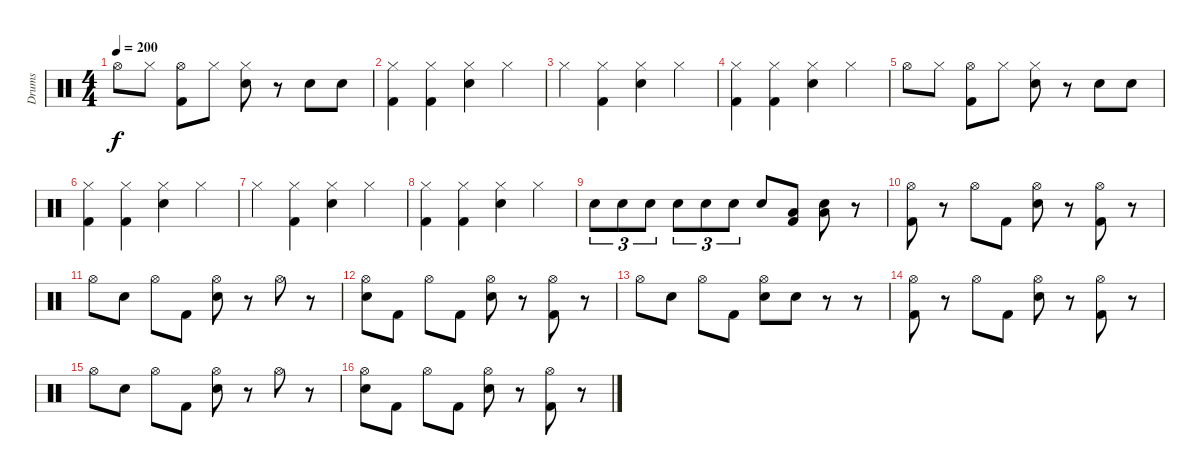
\track ("Drums" "Drums") {instrument percussion}
\staff {score}
\articulation defaults
\ts (4 4)
\tempo 200
\clef neutral
\ks c "Hi-Hat (open)".8{dy f} "Hi-Hat (closed)".8
("Hi-Hat (open)" "Kick (hit) 2").8 "Hi-Hat (closed)".8 ("Hi-Hat (closed)" "Electric Snare (hit)").8 r.8 "Electric Snare (hit)".8 "Electric Snare (hit)".8 |
("Hi-Hat (closed)" "Kick (hit) 2").4 ("Hi-Hat (closed)" "Kick (hit) 2").4 ("Hi-Hat (closed)" "Electric Snare (hit)").4 "Hi-Hat (closed)".4 |
"Hi-Hat (closed)".4 ("Hi-Hat (closed)" "Kick (hit) 2").4 ("Hi-Hat (closed)" "Electric Snare (hit)").4 "Hi-Hat (closed)".4 |
("Hi-Hat (closed)" "Kick (hit) 2").4 ("Hi-Hat (closed)" "Kick (hit) 2").4 ("Hi-Hat (closed)" "Electric Snare (hit)").4 "Hi-Hat (closed)".4 |
"Hi-Hat (open)".8 "Hi-Hat (closed)".8 ("Hi-Hat (open)" "Kick (hit) 2").8 "Hi-Hat (closed)".8 ("Hi-Hat (closed)" "Electric Snare (hit)").8 r.8 "Electric Snare (hit)".8 "Electric Snare (hit)".8 |
("Hi-Hat (closed)" "Kick (hit) 2").4 ("Hi-Hat (closed)" "Kick (hit) 2").4 ("Hi-Hat (closed)" "Electric Snare (hit)").4 "Hi-Hat (closed)".4 |
"Hi-Hat (closed)".4 ("Hi-Hat (closed)" "Kick (hit) 2").4 ("Hi-Hat (closed)" "Electric Snare (hit)").4 "Hi-Hat (closed)".4 |
("Hi-Hat (closed)" "Kick (hit) 2").4 ("Hi-Hat (closed)" "Kick (hit) 2").4 ("Hi-Hat (closed)" "Electric Snare (hit)").4 "Hi-Hat (closed)".4 |
"Electric Snare (hit)".8{tu (3 2)} "Electric Snare (hit)".8{tu (3 2)} "Electric Snare (hit)".8{tu (3 2)} "Electric Snare (hit)".8{tu (3 2)} "Electric Snare (hit)".8{tu (3 2)} "Electric Snare (hit)".8{tu (3 2)} "Electric Snare (hit)".8 ("Low Tom (hit)" "Kick (hit) 2").8 ("Low Tom (hit)" "Electric Snare (hit)").8 r.8 |
("Hi-Hat (open)" "Kick (hit) 2").8 r.8 "Hi-Hat (open)".8 "Kick (hit) 2".8 ("Hi-Hat (open)" "Electric Snare (hit)").8 r.8 ("Hi-Hat (open)" "Kick (hit) 2").8 r.8 |
"Hi-Hat (open)".8 "Electric Snare (hit)".8 "Hi-Hat (open)".8 "Kick (hit) 2".8 ("Hi-Hat (open)" "Electric Snare (hit)").8 r.8 "Hi-Hat (open)".8 r.8 |
("Hi-Hat (open)" "Electric Snare (hit)").8 "Kick (hit) 2".8 "Hi-Hat (open)".8 "Kick (hit) 2".8 ("Hi-Hat (open)" "Electric Snare (hit)").8 r.8 ("Hi-Hat (open)" "Kick (hit) 2").8 r.8 |
"Hi-Hat (open)".8 "Electric Snare (hit)".8 "Hi-Hat (open)".8 "Kick (hit) 2".8 ("Hi-Hat (open)" "Electric Snare (hit)").8 "Electric Snare (hit)".8 r.8 r.8 |
("Hi-Hat (open)" "Kick (hit) 2").8 r.8 "Hi-Hat (open)".8 "Kick (hit) 2".8 ("Hi-Hat (open)" "Electric Snare (hit)").8 r.8 ("Hi-Hat (open)" "Kick (hit) 2").8 r.8 |
"Hi-Hat (open)".8 "Electric Snare (hit)".8 "Hi-Hat (open)".8 "Kick (hit) 2".8 ("Hi-Hat (open)" "Electric Snare (hit)").8 r.8 "Hi-Hat (open)".8 r.8 |
("Hi-Hat (open)" "Electric Snare (hit)").8 "Kick (hit) 2".8 "Hi-Hat (open)".8 "Kick (hit) 2".8 ("Hi-Hat (open)" "Electric Snare (hit)").8 r.8 ("Hi-Hat (open)" "Kick (hit) 2").8 r.8
